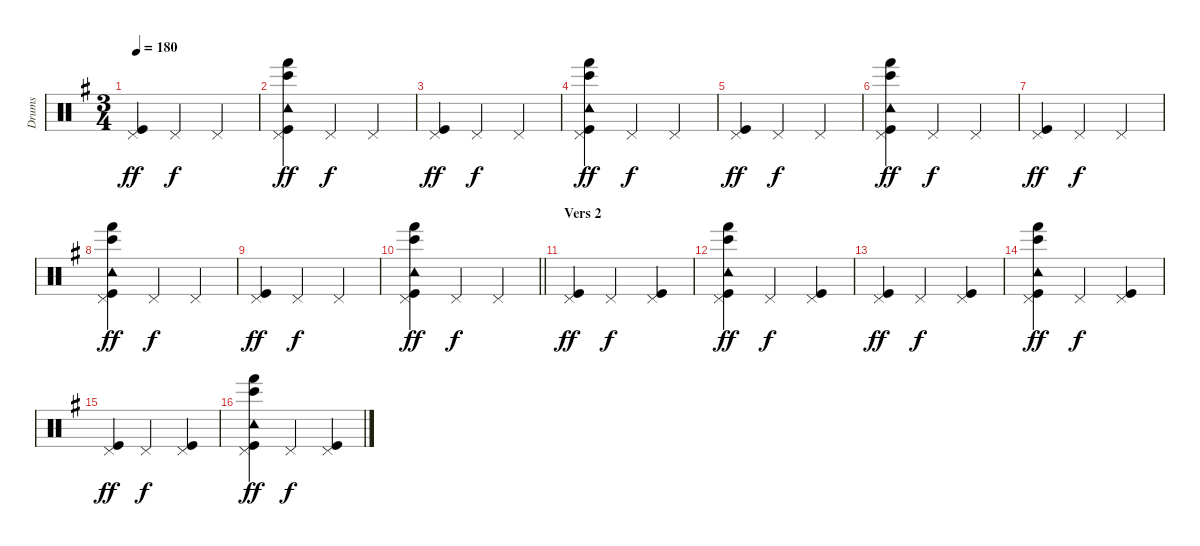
\track ("Drums" "Drums") {instrument percussion bank 24}
\staff {score}
\articulation defaults
\ts (3 4)
\tempo 180
\clef neutral
\ks eminor
("Pedal Hi-Hat (hit)" "Kick (hit)").4{dy ff} "Pedal Hi-Hat (hit)".4{dy f} "Pedal Hi-Hat (hit)".4 |
("Pedal Hi-Hat (hit)" "Tambourine (hit)" "Bongo High (hit)" "Hand (hit)" "Kick (hit)").4{dy ff} "Pedal Hi-Hat (hit)".4{dy f} "Pedal Hi-Hat (hit)".4 |
("Pedal Hi-Hat (hit)" "Kick (hit)").4{dy ff} "Pedal Hi-Hat (hit)".4{dy f} "Pedal Hi-Hat (hit)".4 |
("Pedal Hi-Hat (hit)" "Tambourine (hit)" "Bongo High (hit)" "Hand (hit)" "Kick (hit)").4{dy ff} "Pedal Hi-Hat (hit)".4{dy f} "Pedal Hi-Hat (hit)".4 |
("Pedal Hi-Hat (hit)" "Kick (hit)").4{dy ff} "Pedal Hi-Hat (hit)".4{dy f} "Pedal Hi-Hat (hit)".4 |
("Pedal Hi-Hat (hit)" "Tambourine (hit)" "Bongo High (hit)" "Hand (hit)" "Kick (hit)").4{dy ff} "Pedal Hi-Hat (hit)".4{dy f} "Pedal Hi-Hat (hit)".4 |
("Pedal Hi-Hat (hit)" "Kick (hit)").4{dy ff} "Pedal Hi-Hat (hit)".4{dy f} "Pedal Hi-Hat (hit)".4 |
("Pedal Hi-Hat (hit)" "Tambourine (hit)" "Bongo High (hit)" "Hand (hit)" "Kick (hit)").4{dy ff} "Pedal Hi-Hat (hit)".4{dy f} "Pedal Hi-Hat (hit)".4 |
("Pedal Hi-Hat (hit)" "Kick (hit)").4{dy ff} "Pedal Hi-Hat (hit)".4{dy f} "Pedal Hi-Hat (hit)".4 |
\barLineRight lightlight
("Pedal Hi-Hat (hit)" "Tambourine (hit)" "Bongo High (hit)" "Hand (hit)" "Kick (hit)").4{dy ff} "Pedal Hi-Hat (hit)".4{dy f} "Pedal Hi-Hat (hit)".4 |
\section ("" "Vers 2")
("Pedal Hi-Hat (hit)" "Kick (hit)").4{dy ff} "Pedal Hi-Hat (hit)".4{dy f} ("Pedal Hi-Hat (hit)" "Kick (hit)").4 |
("Pedal Hi-Hat (hit)" "Tambourine (hit)" "Bongo High (hit)" "Hand (hit)" "Kick (hit)").4{dy ff} "Pedal Hi-Hat (hit)".4{dy f} ("Pedal Hi-Hat (hit)" "Kick (hit)").4 |
("Pedal Hi-Hat (hit)" "Kick (hit)").4{dy ff} "Pedal Hi-Hat (hit)".4{dy f} ("Pedal Hi-Hat (hit)" "Kick (hit)").4 |
("Pedal Hi-Hat (hit)" "Tambourine (hit)" "Bongo High (hit)" "Hand (hit)" "Kick (hit)").4{dy ff} "Pedal Hi-Hat (hit)".4{dy f} ("Pedal Hi-Hat (hit)" "Kick (hit)").4 |
("Pedal Hi-Hat (hit)" "Kick (hit)").4{dy ff} "Pedal Hi-Hat (hit)".4{dy f} ("Pedal Hi-Hat (hit)" "Kick (hit)").4 |
("Pedal Hi-Hat (hit)" "Tambourine (hit)" "Bongo High (hit)" "Hand (hit)" "Kick (hit)").4{dy ff} "Pedal Hi-Hat (hit)".4{dy f} ("Pedal Hi-Hat (hit)" "Kick (hit)").4
